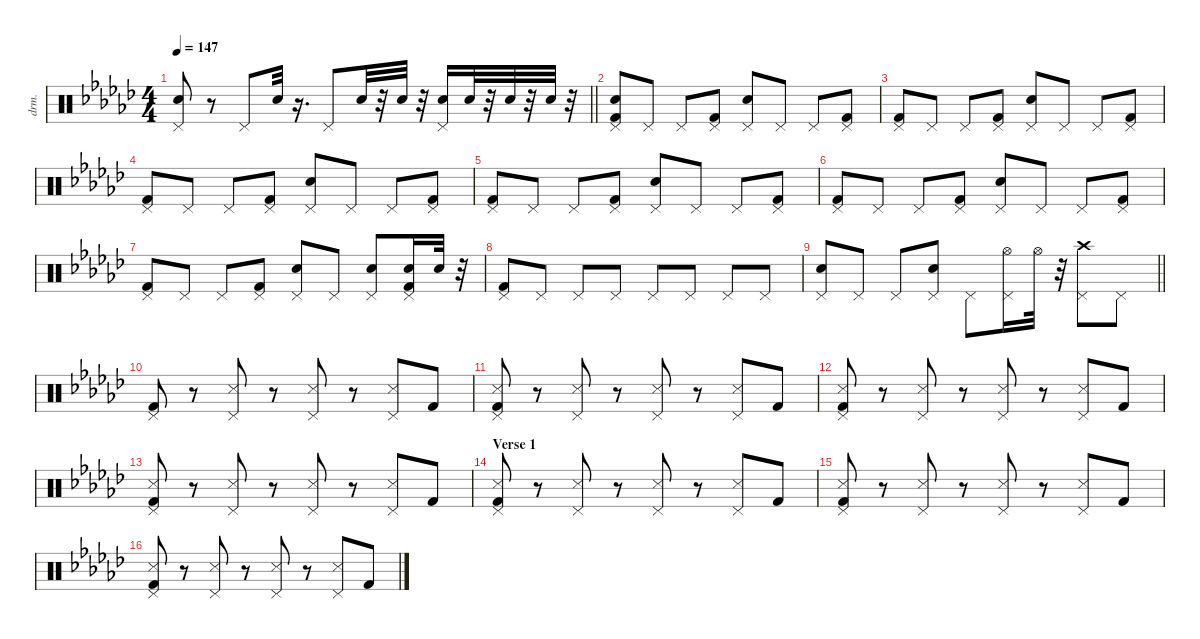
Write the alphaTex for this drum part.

\defaultSystemsLayout 4
\hideDynamics
\bracketExtendMode nobrackets
\otherSystemsTrackNameOrientation horizontal
\track ("Drums" "drm.") {instrument percussion}
\staff {score}
\articulation defaults
\ts (4 4)
\tempo 147
\clef neutral
\barLineRight lightlight
\ks ebminor
("Pedal Hi-Hat (hit)"{acc forcenatural} "Snare (hit) 2"{acc forcenatural}).8{dy f beam Up} r.8{beam Up} "Pedal Hi-Hat (hit)"{acc forcenatural}.8{beam Up} "Snare (hit) 2"{acc forcenatural}.32{dy mf beam Up} r.16{d beam Up} "Pedal Hi-Hat (hit)"{acc forcenatural}.8{dy f beam Up} "Snare (hit) 2"{acc forcenatural}.32{dy p beam Up} r.32{beam Up} "Snare (hit) 2"{acc forcenatural}.32{dy mp beam Up} r.32{beam Up} ("Pedal Hi-Hat (hit)"{acc forcenatural} "Snare (hit) 2"{acc forcenatural}).16{dy f beam Up} "Snare (hit) 2"{acc forcenatural}.32{dy mf beam Up} r.32{beam Up} "Snare (hit) 2"{acc forcenatural}.32{dy f beam Up} r.32{beam Up} "Snare (hit) 2"{acc forcenatural}.32{dy ff beam Up} r.32{beam Up} |
("Pedal Hi-Hat (hit)"{acc forcenatural} "Kick (hit) 2"{acc forcenatural} "Snare (hit) 2"{acc forcenatural}).8{dy f beam Up} "Pedal Hi-Hat (hit)"{acc forcenatural}.8{dy mp beam Up} "Pedal Hi-Hat (hit)"{acc forcenatural}.8{dy f beam Up} ("Pedal Hi-Hat (hit)"{acc forcenatural} "Kick (hit) 2"{acc forcenatural}).8{dy mp beam Up} ("Pedal Hi-Hat (hit)"{acc forcenatural} "Snare (hit) 2"{acc forcenatural}).8{dy f beam Up} "Pedal Hi-Hat (hit)"{acc forcenatural}.8{dy mp beam Up} "Pedal Hi-Hat (hit)"{acc forcenatural}.8{dy f beam Up} ("Pedal Hi-Hat (hit)"{acc forcenatural} "Kick (hit) 2"{acc forcenatural}).8{dy mp beam Up} |
("Pedal Hi-Hat (hit)"{acc forcenatural} "Kick (hit) 2"{acc forcenatural}).8{dy f beam Up} "Pedal Hi-Hat (hit)"{acc forcenatural}.8{dy mp beam Up} "Pedal Hi-Hat (hit)"{acc forcenatural}.8{dy f beam Up} ("Pedal Hi-Hat (hit)"{acc forcenatural} "Kick (hit) 2"{acc forcenatural}).8{dy mp beam Up} ("Pedal Hi-Hat (hit)"{acc forcenatural} "Snare (hit) 2"{acc forcenatural}).8{dy f beam Up} "Pedal Hi-Hat (hit)"{acc forcenatural}.8{dy mp beam Up} "Pedal Hi-Hat (hit)"{acc forcenatural}.8{dy f beam Up} ("Pedal Hi-Hat (hit)"{acc forcenatural} "Kick (hit) 2"{acc forcenatural}).8{dy mp beam Up} |
("Pedal Hi-Hat (hit)"{acc forcenatural} "Kick (hit) 2"{acc forcenatural}).8{dy f beam Up} "Pedal Hi-Hat (hit)"{acc forcenatural}.8{dy mp beam Up} "Pedal Hi-Hat (hit)"{acc forcenatural}.8{dy f beam Up} ("Pedal Hi-Hat (hit)"{acc forcenatural} "Kick (hit) 2"{acc forcenatural}).8{dy mp beam Up} ("Pedal Hi-Hat (hit)"{acc forcenatural} "Snare (hit) 2"{acc forcenatural}).8{dy f beam Up} "Pedal Hi-Hat (hit)"{acc forcenatural}.8{dy mp beam Up} "Pedal Hi-Hat (hit)"{acc forcenatural}.8{dy f beam Up} ("Pedal Hi-Hat (hit)"{acc forcenatural} "Kick (hit) 2"{acc forcenatural}).8{dy mp beam Up} |
("Pedal Hi-Hat (hit)"{acc forcenatural} "Kick (hit) 2"{acc forcenatural}).8{dy f beam Up} "Pedal Hi-Hat (hit)"{acc forcenatural}.8{dy mp beam Up} "Pedal Hi-Hat (hit)"{acc forcenatural}.8{dy f beam Up} ("Pedal Hi-Hat (hit)"{acc forcenatural} "Kick (hit) 2"{acc forcenatural}).8{dy mp beam Up} ("Pedal Hi-Hat (hit)"{acc forcenatural} "Snare (hit) 2"{acc forcenatural}).8{dy f beam Up} "Pedal Hi-Hat (hit)"{acc forcenatural}.8{dy mp beam Up} "Pedal Hi-Hat (hit)"{acc forcenatural}.8{dy f beam Up} ("Pedal Hi-Hat (hit)"{acc forcenatural} "Kick (hit) 2"{acc forcenatural}).8{dy mp beam Up} |
("Pedal Hi-Hat (hit)"{acc forcenatural} "Kick (hit) 2"{acc forcenatural}).8{dy f beam Up} "Pedal Hi-Hat (hit)"{acc forcenatural}.8{dy mp beam Up} "Pedal Hi-Hat (hit)"{acc forcenatural}.8{dy f beam Up} ("Pedal Hi-Hat (hit)"{acc forcenatural} "Kick (hit) 2"{acc forcenatural}).8{dy mp beam Up} ("Pedal Hi-Hat (hit)"{acc forcenatural} "Snare (hit) 2"{acc forcenatural}).8{dy f beam Up} "Pedal Hi-Hat (hit)"{acc forcenatural}.8{dy mp beam Up} "Pedal Hi-Hat (hit)"{acc forcenatural}.8{dy f beam Up} ("Pedal Hi-Hat (hit)"{acc forcenatural} "Kick (hit) 2"{acc forcenatural}).8{dy mp beam Up} |
("Pedal Hi-Hat (hit)"{acc forcenatural} "Kick (hit) 2"{acc forcenatural}).8{dy f beam Up} "Pedal Hi-Hat (hit)"{acc forcenatural}.8{dy mp beam Up} "Pedal Hi-Hat (hit)"{acc forcenatural}.8{dy f beam Up} ("Pedal Hi-Hat (hit)"{acc forcenatural} "Kick (hit) 2"{acc forcenatural}).8{dy mp beam Up} ("Pedal Hi-Hat (hit)"{acc forcenatural} "Snare (hit) 2"{acc forcenatural}).8{dy f beam Up} "Pedal Hi-Hat (hit)"{acc forcenatural}.8{dy mp beam Up} ("Pedal Hi-Hat (hit)"{acc forcenatural} "Snare (hit) 2"{acc forcenatural}).8{dy f beam Up} ("Pedal Hi-Hat (hit)"{acc forcenatural} "Snare (hit) 2"{acc forcenatural} "Kick (hit) 2"{acc forcenatural}).16{dy mp beam Up} "Snare (hit) 2"{acc forcenatural}.32{dy f beam Up} r.32{beam Up} |
("Pedal Hi-Hat (hit)"{acc forcenatural} "Kick (hit) 2"{acc forcenatural}).8{beam Up} "Pedal Hi-Hat (hit)"{acc forcenatural}.8{dy mp beam Up} "Pedal Hi-Hat (hit)"{acc forcenatural}.8{dy f beam Up} "Pedal Hi-Hat (hit)"{acc forcenatural}.8{dy mp beam Up} "Pedal Hi-Hat (hit)"{acc forcenatural}.8{dy f beam Up} "Pedal Hi-Hat (hit)"{acc forcenatural}.8{dy mp beam Up} "Pedal Hi-Hat (hit)"{acc forcenatural}.8{dy f beam Up} "Pedal Hi-Hat (hit)"{acc forcenatural}.8{dy mp beam Up} |
\barLineRight lightlight
("Pedal Hi-Hat (hit)"{acc forcenatural} "Snare (hit) 2"{acc forcenatural}).8{dy f beam Up} "Pedal Hi-Hat (hit)"{acc forcenatural}.8{dy mp beam Up} "Pedal Hi-Hat (hit)"{acc forcenatural}.8{dy f beam Up} ("Pedal Hi-Hat (hit)"{acc forcenatural} "Snare (hit) 2"{acc forcenatural}).8{dy mp beam Up} "Pedal Hi-Hat (hit)"{acc forcenatural}.8{dy f beam Down} ("Pedal Hi-Hat (hit)"{acc forcenatural} "Hi-Hat (open)"{acc forcenatural}).16{dy mp beam Down} "Hi-Hat (open)"{acc forcenatural}.32{dy f beam Down} r.32{beam Down} ("Pedal Hi-Hat (hit)"{acc forcenatural} "Crash high (hit)"{acc forcenatural}).8{beam Down} "Pedal Hi-Hat (hit)"{acc forcenatural}.8{dy mp beam Down} |
("Pedal Hi-Hat (hit)"{acc forcenatural} "Kick (hit) 2"{acc forcenatural}).8{dy f beam Up} r.8{beam Up} ("Pedal Hi-Hat (hit)"{acc forcenatural} "Snare (side stick) 3"{acc forcenatural}).8{beam Up} r.8{beam Up} ("Pedal Hi-Hat (hit)"{acc forcenatural} "Snare (side stick) 3"{acc forcenatural}).8{beam Up} r.8{beam Up} ("Pedal Hi-Hat (hit)"{acc forcenatural} "Snare (side stick) 3"{acc forcenatural}).8{beam Up} "Kick (hit) 2"{acc forcenatural}.8{beam Up} |
("Pedal Hi-Hat (hit)"{acc forcenatural} "Kick (hit) 2"{acc forcenatural} "Snare (side stick) 3"{acc forcenatural}).8{beam Up} r.8{beam Up} ("Pedal Hi-Hat (hit)"{acc forcenatural} "Snare (side stick) 3"{acc forcenatural}).8{beam Up} r.8{beam Up} ("Pedal Hi-Hat (hit)"{acc forcenatural} "Snare (side stick) 3"{acc forcenatural}).8{beam Up} r.8{beam Up} ("Pedal Hi-Hat (hit)"{acc forcenatural} "Snare (side stick) 3"{acc forcenatural}).8{beam Up} "Kick (hit) 2"{acc forcenatural}.8{beam Up} |
("Pedal Hi-Hat (hit)"{acc forcenatural} "Kick (hit) 2"{acc forcenatural} "Snare (side stick) 3"{acc forcenatural}).8{beam Up} r.8{beam Up} ("Pedal Hi-Hat (hit)"{acc forcenatural} "Snare (side stick) 3"{acc forcenatural}).8{beam Up} r.8{beam Up} ("Pedal Hi-Hat (hit)"{acc forcenatural} "Snare (side stick) 3"{acc forcenatural}).8{beam Up} r.8{beam Up} ("Pedal Hi-Hat (hit)"{acc forcenatural} "Snare (side stick) 3"{acc forcenatural}).8{beam Up} "Kick (hit) 2"{acc forcenatural}.8{beam Up} |
("Pedal Hi-Hat (hit)"{acc forcenatural} "Kick (hit) 2"{acc forcenatural} "Snare (side stick) 3"{acc forcenatural}).8{beam Up} r.8{beam Up} ("Pedal Hi-Hat (hit)"{acc forcenatural} "Snare (side stick) 3"{acc forcenatural}).8{beam Up} r.8{beam Up} ("Pedal Hi-Hat (hit)"{acc forcenatural} "Snare (side stick) 3"{acc forcenatural}).8{beam Up} r.8{beam Up} ("Pedal Hi-Hat (hit)"{acc forcenatural} "Snare (side stick) 3"{acc forcenatural}).8{beam Up} "Kick (hit) 2"{acc forcenatural}.8{beam Up} |
\section ("" "Verse 1")
("Pedal Hi-Hat (hit)"{acc forcenatural} "Kick (hit) 2"{acc forcenatural} "Snare (side stick) 3"{acc forcenatural}).8{beam Up} r.8{beam Up} ("Pedal Hi-Hat (hit)"{acc forcenatural} "Snare (side stick) 3"{acc forcenatural}).8{beam Up} r.8{beam Up} ("Pedal Hi-Hat (hit)"{acc forcenatural} "Snare (side stick) 3"{acc forcenatural}).8{beam Up} r.8{beam Up} ("Pedal Hi-Hat (hit)"{acc forcenatural} "Snare (side stick) 3"{acc forcenatural}).8{beam Up} "Kick (hit) 2"{acc forcenatural}.8{beam Up} |
("Pedal Hi-Hat (hit)"{acc forcenatural} "Kick (hit) 2"{acc forcenatural} "Snare (side stick) 3"{acc forcenatural}).8{beam Up} r.8{beam Up} ("Pedal Hi-Hat (hit)"{acc forcenatural} "Snare (side stick) 3"{acc forcenatural}).8{beam Up} r.8{beam Up} ("Pedal Hi-Hat (hit)"{acc forcenatural} "Snare (side stick) 3"{acc forcenatural}).8{beam Up} r.8{beam Up} ("Pedal Hi-Hat (hit)"{acc forcenatural} "Snare (side stick) 3"{acc forcenatural}).8{beam Up} "Kick (hit) 2"{acc forcenatural}.8{beam Up} |
("Pedal Hi-Hat (hit)"{acc forcenatural} "Kick (hit) 2"{acc forcenatural} "Snare (side stick) 3"{acc forcenatural}).8{beam Up} r.8{beam Up} ("Pedal Hi-Hat (hit)"{acc forcenatural} "Snare (side stick) 3"{acc forcenatural}).8{beam Up} r.8{beam Up} ("Pedal Hi-Hat (hit)"{acc forcenatural} "Snare (side stick) 3"{acc forcenatural}).8{beam Up} r.8{beam Up} ("Pedal Hi-Hat (hit)"{acc forcenatural} "Snare (side stick) 3"{acc forcenatural}).8{beam Up} "Kick (hit) 2"{acc forcenatural}.8{beam Up}
